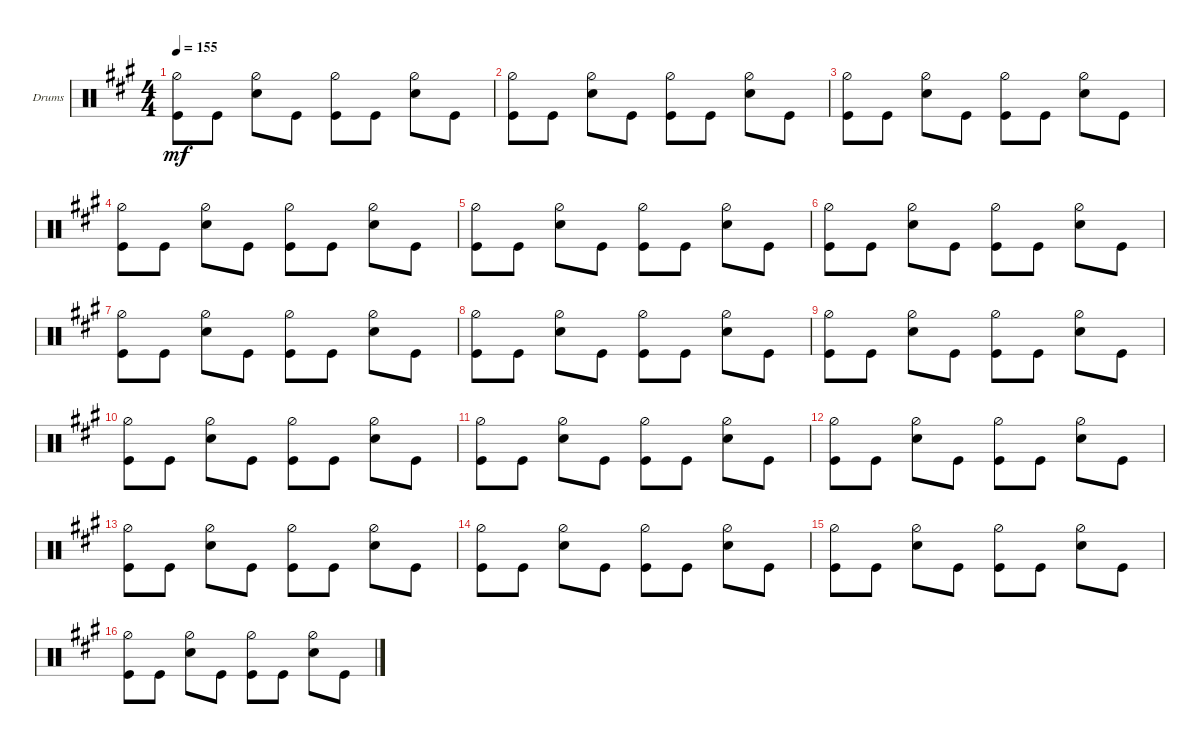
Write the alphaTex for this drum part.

\defaultSystemsLayout 4
\bracketExtendMode groupsimilarinstruments
\firstSystemTrackNameOrientation horizontal
\otherSystemsTrackNameOrientation horizontal
\track ("John Bonham" "Drums") {instrument percussion}
\staff {score}
\articulation defaults
\ts (4 4)
\tempo 155
\clef neutral
\ks a
("Hi-Hat (half)" "Kick (hit)").8{dy mf} "Kick (hit)".8 ("Hi-Hat (half)" "Snare (hit) 2").8 "Kick (hit)".8 ("Kick (hit)" "Hi-Hat (half)").8 "Kick (hit)".8 ("Hi-Hat (half)" "Snare (hit) 2").8 "Kick (hit)".8 |
("Hi-Hat (half)" "Kick (hit)").8 "Kick (hit)".8 ("Hi-Hat (half)" "Snare (hit) 2").8 "Kick (hit)".8 ("Kick (hit)" "Hi-Hat (half)").8 "Kick (hit)".8 ("Hi-Hat (half)" "Snare (hit) 2").8 "Kick (hit)".8 |
("Hi-Hat (half)" "Kick (hit)").8 "Kick (hit)".8 ("Hi-Hat (half)" "Snare (hit) 2").8 "Kick (hit)".8 ("Kick (hit)" "Hi-Hat (half)").8 "Kick (hit)".8 ("Hi-Hat (half)" "Snare (hit) 2").8 "Kick (hit)".8 |
("Hi-Hat (half)" "Kick (hit)").8 "Kick (hit)".8 ("Hi-Hat (half)" "Snare (hit) 2").8 "Kick (hit)".8 ("Kick (hit)" "Hi-Hat (half)").8 "Kick (hit)".8 ("Hi-Hat (half)" "Snare (hit) 2").8 "Kick (hit)".8 |
("Hi-Hat (half)" "Kick (hit)").8 "Kick (hit)".8 ("Hi-Hat (half)" "Snare (hit) 2").8 "Kick (hit)".8 ("Kick (hit)" "Hi-Hat (half)").8 "Kick (hit)".8 ("Hi-Hat (half)" "Snare (hit) 2").8 "Kick (hit)".8 |
("Hi-Hat (half)" "Kick (hit)").8 "Kick (hit)".8 ("Hi-Hat (half)" "Snare (hit) 2").8 "Kick (hit)".8 ("Kick (hit)" "Hi-Hat (half)").8 "Kick (hit)".8 ("Hi-Hat (half)" "Snare (hit) 2").8 "Kick (hit)".8 |
("Hi-Hat (half)" "Kick (hit)").8 "Kick (hit)".8 ("Hi-Hat (half)" "Snare (hit) 2").8 "Kick (hit)".8 ("Kick (hit)" "Hi-Hat (half)").8 "Kick (hit)".8 ("Hi-Hat (half)" "Snare (hit) 2").8 "Kick (hit)".8 |
("Hi-Hat (half)" "Kick (hit)").8 "Kick (hit)".8 ("Hi-Hat (half)" "Snare (hit) 2").8 "Kick (hit)".8 ("Kick (hit)" "Hi-Hat (half)").8 "Kick (hit)".8 ("Hi-Hat (half)" "Snare (hit) 2").8 "Kick (hit)".8 |
("Hi-Hat (half)" "Kick (hit)").8 "Kick (hit)".8 ("Hi-Hat (half)" "Snare (hit) 2").8 "Kick (hit)".8 ("Kick (hit)" "Hi-Hat (half)").8 "Kick (hit)".8 ("Hi-Hat (half)" "Snare (hit) 2").8 "Kick (hit)".8 |
("Hi-Hat (half)" "Kick (hit)").8 "Kick (hit)".8 ("Hi-Hat (half)" "Snare (hit) 2").8 "Kick (hit)".8 ("Kick (hit)" "Hi-Hat (half)").8 "Kick (hit)".8 ("Hi-Hat (half)" "Snare (hit) 2").8 "Kick (hit)".8 |
("Hi-Hat (half)" "Kick (hit)").8 "Kick (hit)".8 ("Hi-Hat (half)" "Snare (hit) 2").8 "Kick (hit)".8 ("Kick (hit)" "Hi-Hat (half)").8 "Kick (hit)".8 ("Hi-Hat (half)" "Snare (hit) 2").8 "Kick (hit)".8 |
("Hi-Hat (half)" "Kick (hit)").8 "Kick (hit)".8 ("Hi-Hat (half)" "Snare (hit) 2").8 "Kick (hit)".8 ("Kick (hit)" "Hi-Hat (half)").8 "Kick (hit)".8 ("Hi-Hat (half)" "Snare (hit) 2").8 "Kick (hit)".8 |
("Hi-Hat (half)" "Kick (hit)").8 "Kick (hit)".8 ("Hi-Hat (half)" "Snare (hit) 2").8 "Kick (hit)".8 ("Kick (hit)" "Hi-Hat (half)").8 "Kick (hit)".8 ("Hi-Hat (half)" "Snare (hit) 2").8 "Kick (hit)".8 |
("Hi-Hat (half)" "Kick (hit)").8 "Kick (hit)".8 ("Hi-Hat (half)" "Snare (hit) 2").8 "Kick (hit)".8 ("Kick (hit)" "Hi-Hat (half)").8 "Kick (hit)".8 ("Hi-Hat (half)" "Snare (hit) 2").8 "Kick (hit)".8 |
("Hi-Hat (half)" "Kick (hit)").8 "Kick (hit)".8 ("Hi-Hat (half)" "Snare (hit) 2").8 "Kick (hit)".8 ("Kick (hit)" "Hi-Hat (half)").8 "Kick (hit)".8 ("Hi-Hat (half)" "Snare (hit) 2").8 "Kick (hit)".8 |
("Hi-Hat (half)" "Kick (hit)").8 "Kick (hit)".8 ("Hi-Hat (half)" "Snare (hit) 2").8 "Kick (hit)".8 ("Kick (hit)" "Hi-Hat (half)").8 "Kick (hit)".8 ("Hi-Hat (half)" "Snare (hit) 2").8 "Kick (hit)".8
